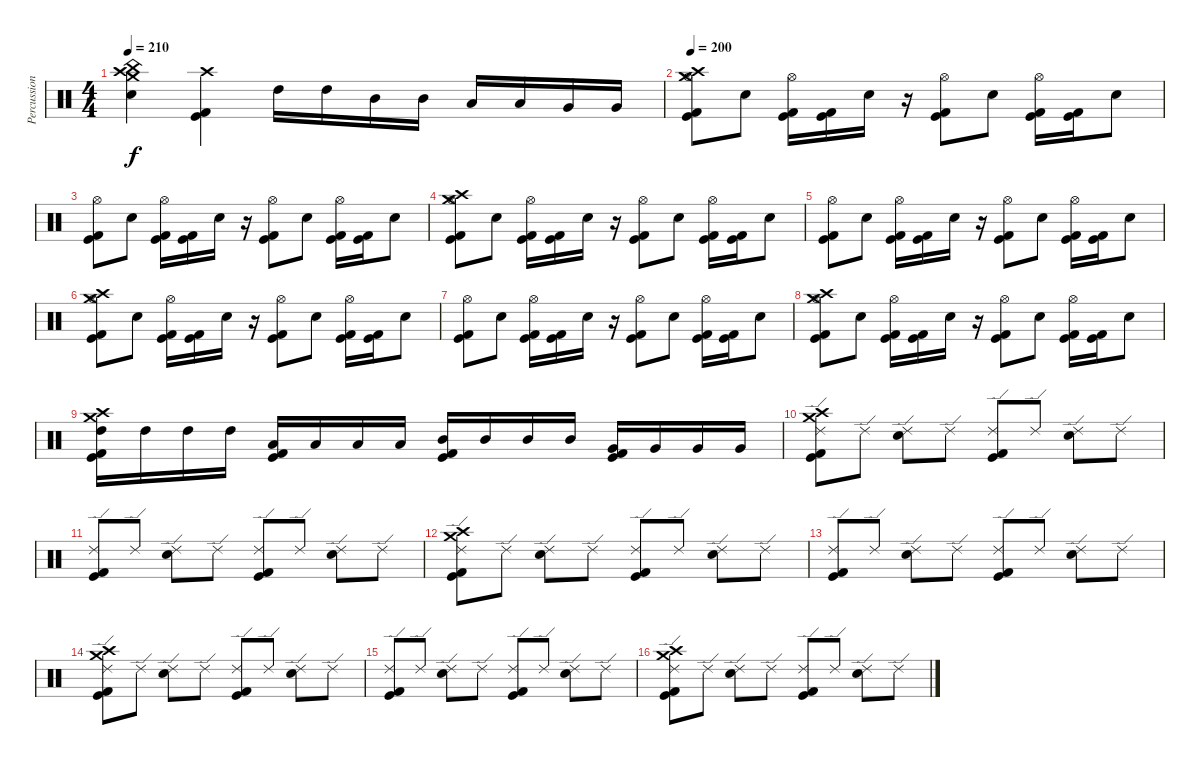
\track ("Percussion" "Percussion") {instrument percussion}
\staff {score}
\articulation defaults
\ts (4 4)
\tempo 210
\clef neutral
\ks c
("Crash medium (hit)" "Crash high (hit)" "China (hit)" "Electric Snare (hit)").4{dy f} ("Crash high (hit)" "Kick (hit)" "Kick (hit) 2").4 "High Tom (hit)".16 "High Tom (hit)".16 "Mid Tom (hit)".16 "Mid Tom (hit)".16 "Low Tom (hit)".16 "Low Tom (hit)".16 "Very Low Tom (hit)".16 "Very Low Tom (hit)".16 |
\tempo 200
("Crash medium (hit)" "Crash high (hit)" "Hi-Hat (open)" "Kick (hit)" "Kick (hit) 2").8 "Electric Snare (hit)".8 ("Hi-Hat (open)" "Kick (hit)" "Kick (hit) 2").16 ("Kick (hit)" "Kick (hit) 2").16 "Electric Snare (hit)".16 r.16 ("Hi-Hat (open)" "Kick (hit)" "Kick (hit) 2").8 "Electric Snare (hit)".8 ("Hi-Hat (open)" "Kick (hit)" "Kick (hit) 2").16 ("Kick (hit)" "Kick (hit) 2").16 "Electric Snare (hit)".8 |
("Hi-Hat (open)" "Kick (hit)" "Kick (hit) 2").8 "Electric Snare (hit)".8 ("Hi-Hat (open)" "Kick (hit)" "Kick (hit) 2").16 ("Kick (hit)" "Kick (hit) 2").16 "Electric Snare (hit)".16 r.16 ("Hi-Hat (open)" "Kick (hit)" "Kick (hit) 2").8 "Electric Snare (hit)".8 ("Hi-Hat (open)" "Kick (hit)" "Kick (hit) 2").16 ("Kick (hit)" "Kick (hit) 2").16 "Electric Snare (hit)".8 |
("Crash medium (hit)" "Crash high (hit)" "Hi-Hat (open)" "Kick (hit)" "Kick (hit) 2").8 "Electric Snare (hit)".8 ("Hi-Hat (open)" "Kick (hit)" "Kick (hit) 2").16 ("Kick (hit)" "Kick (hit) 2").16 "Electric Snare (hit)".16 r.16 ("Hi-Hat (open)" "Kick (hit)" "Kick (hit) 2").8 "Electric Snare (hit)".8 ("Hi-Hat (open)" "Kick (hit)" "Kick (hit) 2").16 ("Kick (hit)" "Kick (hit) 2").16 "Electric Snare (hit)".8 |
("Hi-Hat (open)" "Kick (hit)" "Kick (hit) 2").8 "Electric Snare (hit)".8 ("Hi-Hat (open)" "Kick (hit)" "Kick (hit) 2").16 ("Kick (hit)" "Kick (hit) 2").16 "Electric Snare (hit)".16 r.16 ("Hi-Hat (open)" "Kick (hit)" "Kick (hit) 2").8 "Electric Snare (hit)".8 ("Hi-Hat (open)" "Kick (hit)" "Kick (hit) 2").16 ("Kick (hit)" "Kick (hit) 2").16 "Electric Snare (hit)".8 |
("Crash medium (hit)" "Crash high (hit)" "Hi-Hat (open)" "Kick (hit)" "Kick (hit) 2").8 "Electric Snare (hit)".8 ("Hi-Hat (open)" "Kick (hit)" "Kick (hit) 2").16 ("Kick (hit)" "Kick (hit) 2").16 "Electric Snare (hit)".16 r.16 ("Hi-Hat (open)" "Kick (hit)" "Kick (hit) 2").8 "Electric Snare (hit)".8 ("Hi-Hat (open)" "Kick (hit)" "Kick (hit) 2").16 ("Kick (hit)" "Kick (hit) 2").16 "Electric Snare (hit)".8 |
("Hi-Hat (open)" "Kick (hit)" "Kick (hit) 2").8 "Electric Snare (hit)".8 ("Hi-Hat (open)" "Kick (hit)" "Kick (hit) 2").16 ("Kick (hit)" "Kick (hit) 2").16 "Electric Snare (hit)".16 r.16 ("Hi-Hat (open)" "Kick (hit)" "Kick (hit) 2").8 "Electric Snare (hit)".8 ("Hi-Hat (open)" "Kick (hit)" "Kick (hit) 2").16 ("Kick (hit)" "Kick (hit) 2").16 "Electric Snare (hit)".8 |
("Crash medium (hit)" "Crash high (hit)" "Hi-Hat (open)" "Kick (hit)" "Kick (hit) 2").8 "Electric Snare (hit)".8 ("Hi-Hat (open)" "Kick (hit)" "Kick (hit) 2").16 ("Kick (hit)" "Kick (hit) 2").16 "Electric Snare (hit)".16 r.16 ("Hi-Hat (open)" "Kick (hit)" "Kick (hit) 2").8 "Electric Snare (hit)".8 ("Hi-Hat (open)" "Kick (hit)" "Kick (hit) 2").16 ("Kick (hit)" "Kick (hit) 2").16 "Electric Snare (hit)".8 |
("Crash medium (hit)" "Crash high (hit)" "High Tom (hit)" "Kick (hit)" "Kick (hit) 2").16 "High Tom (hit)".16 "High Tom (hit)".16 "High Tom (hit)".16 ("Low Tom (hit)" "Kick (hit)" "Kick (hit) 2").16 "Low Tom (hit)".16 "Low Tom (hit)".16 "Low Tom (hit)".16 ("Mid Tom (hit)" "Kick (hit)" "Kick (hit) 2").16 "Mid Tom (hit)".16 "Mid Tom (hit)".16 "Mid Tom (hit)".16 ("Very Low Tom (hit)" "Kick (hit)" "Kick (hit) 2").16 "Very Low Tom (hit)".16 "Very Low Tom (hit)".16 "Very Low Tom (hit)".16 |
("Crash medium (hit)" "Crash high (hit)" "Ride (edge) 2" "Kick (hit)" "Kick (hit) 2").8 "Ride (edge) 2".8 ("Ride (edge) 2" "Electric Snare (hit)").8 "Ride (edge) 2".8 ("Ride (edge) 2" "Kick (hit)" "Kick (hit) 2").8 "Ride (edge) 2".8 ("Ride (edge) 2" "Electric Snare (hit)").8 "Ride (edge) 2".8 |
("Ride (edge) 2" "Kick (hit)" "Kick (hit) 2").8 "Ride (edge) 2".8 ("Ride (edge) 2" "Electric Snare (hit)").8 "Ride (edge) 2".8 ("Ride (edge) 2" "Kick (hit)" "Kick (hit) 2").8 "Ride (edge) 2".8 ("Ride (edge) 2" "Electric Snare (hit)").8 "Ride (edge) 2".8 |
("Crash medium (hit)" "Crash high (hit)" "Ride (edge) 2" "Kick (hit)" "Kick (hit) 2").8 "Ride (edge) 2".8 ("Ride (edge) 2" "Electric Snare (hit)").8 "Ride (edge) 2".8 ("Ride (edge) 2" "Kick (hit)" "Kick (hit) 2").8 "Ride (edge) 2".8 ("Ride (edge) 2" "Electric Snare (hit)").8 "Ride (edge) 2".8 |
("Ride (edge) 2" "Kick (hit)" "Kick (hit) 2").8 "Ride (edge) 2".8 ("Ride (edge) 2" "Electric Snare (hit)").8 "Ride (edge) 2".8 ("Ride (edge) 2" "Kick (hit)" "Kick (hit) 2").8 "Ride (edge) 2".8 ("Ride (edge) 2" "Electric Snare (hit)").8 "Ride (edge) 2".8 |
("Crash medium (hit)" "Crash high (hit)" "Ride (edge) 2" "Kick (hit)" "Kick (hit) 2").8 "Ride (edge) 2".8 ("Ride (edge) 2" "Electric Snare (hit)").8 "Ride (edge) 2".8 ("Ride (edge) 2" "Kick (hit)" "Kick (hit) 2").8 "Ride (edge) 2".8 ("Ride (edge) 2" "Electric Snare (hit)").8 "Ride (edge) 2".8 |
("Ride (edge) 2" "Kick (hit)" "Kick (hit) 2").8 "Ride (edge) 2".8 ("Ride (edge) 2" "Electric Snare (hit)").8 "Ride (edge) 2".8 ("Ride (edge) 2" "Kick (hit)" "Kick (hit) 2").8 "Ride (edge) 2".8 ("Ride (edge) 2" "Electric Snare (hit)").8 "Ride (edge) 2".8 |
("Crash medium (hit)" "Crash high (hit)" "Ride (edge) 2" "Kick (hit)" "Kick (hit) 2").8 "Ride (edge) 2".8 ("Ride (edge) 2" "Electric Snare (hit)").8 "Ride (edge) 2".8 ("Ride (edge) 2" "Kick (hit)" "Kick (hit) 2").8 "Ride (edge) 2".8 ("Ride (edge) 2" "Electric Snare (hit)").8 "Ride (edge) 2".8
